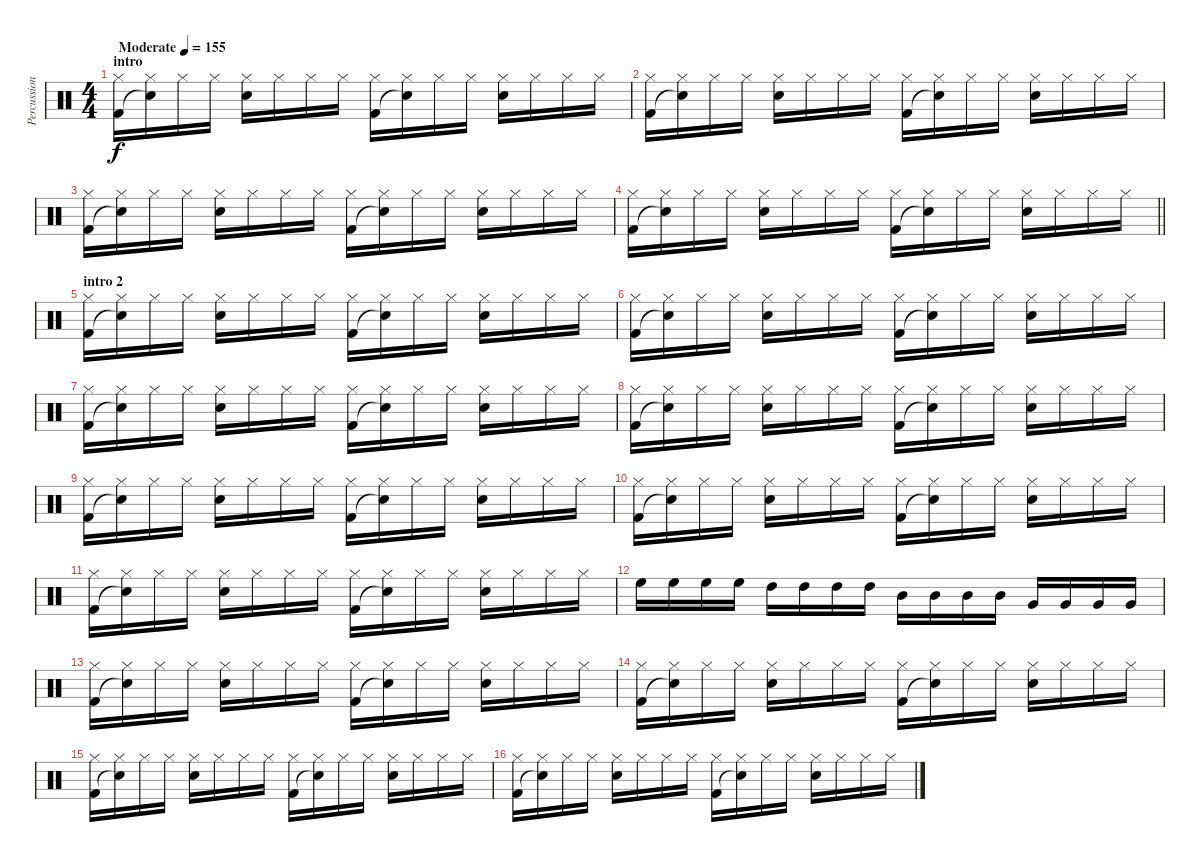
\track ("Percussion" "Percussion") {instrument percussion}
\staff {score}
\articulation defaults
\ts (4 4)
\section ("" "intro")
\tempo (155 "Moderate")
\clef neutral
\ks c
("Hi-Hat (closed)" "Kick (hit) 2").16{dy f} ("Hi-Hat (closed)" "Snare (hit)"{t}).16 "Hi-Hat (closed)".16 "Hi-Hat (closed)".16 ("Hi-Hat (closed)" "Snare (hit) 2").16 "Hi-Hat (closed)".16 "Hi-Hat (closed)".16 "Hi-Hat (closed)".16 ("Hi-Hat (closed)" "Kick (hit) 2").16 ("Hi-Hat (closed)" "Snare (hit)"{t}).16 "Hi-Hat (closed)".16 "Hi-Hat (closed)".16 ("Hi-Hat (closed)" "Snare (hit) 2").16 "Hi-Hat (closed)".16 "Hi-Hat (closed)".16 "Hi-Hat (closed)".16 |
("Hi-Hat (closed)" "Kick (hit) 2").16 ("Hi-Hat (closed)" "Snare (hit)"{t}).16 "Hi-Hat (closed)".16 "Hi-Hat (closed)".16 ("Hi-Hat (closed)" "Snare (hit) 2").16 "Hi-Hat (closed)".16 "Hi-Hat (closed)".16 "Hi-Hat (closed)".16 ("Hi-Hat (closed)" "Kick (hit) 2").16 ("Hi-Hat (closed)" "Snare (hit)"{t}).16 "Hi-Hat (closed)".16 "Hi-Hat (closed)".16 ("Hi-Hat (closed)" "Snare (hit) 2").16 "Hi-Hat (closed)".16 "Hi-Hat (closed)".16 "Hi-Hat (closed)".16 |
("Hi-Hat (closed)" "Kick (hit) 2").16 ("Hi-Hat (closed)" "Snare (hit)"{t}).16 "Hi-Hat (closed)".16 "Hi-Hat (closed)".16 ("Hi-Hat (closed)" "Snare (hit) 2").16 "Hi-Hat (closed)".16 "Hi-Hat (closed)".16 "Hi-Hat (closed)".16 ("Hi-Hat (closed)" "Kick (hit) 2").16 ("Hi-Hat (closed)" "Snare (hit)"{t}).16 "Hi-Hat (closed)".16 "Hi-Hat (closed)".16 ("Hi-Hat (closed)" "Snare (hit) 2").16 "Hi-Hat (closed)".16 "Hi-Hat (closed)".16 "Hi-Hat (closed)".16 |
\barLineRight lightlight
("Hi-Hat (closed)" "Kick (hit) 2").16 ("Hi-Hat (closed)" "Snare (hit)"{t}).16 "Hi-Hat (closed)".16 "Hi-Hat (closed)".16 ("Hi-Hat (closed)" "Snare (hit) 2").16 "Hi-Hat (closed)".16 "Hi-Hat (closed)".16 "Hi-Hat (closed)".16 ("Hi-Hat (closed)" "Kick (hit) 2").16 ("Hi-Hat (closed)" "Snare (hit)"{t}).16 "Hi-Hat (closed)".16 "Hi-Hat (closed)".16 ("Hi-Hat (closed)" "Snare (hit) 2").16 "Hi-Hat (closed)".16 "Hi-Hat (closed)".16 "Hi-Hat (closed)".16 |
\section ("" "intro 2")
("Hi-Hat (closed)" "Kick (hit) 2").16 ("Hi-Hat (closed)" "Snare (hit)"{t}).16 "Hi-Hat (closed)".16 "Hi-Hat (closed)".16 ("Hi-Hat (closed)" "Snare (hit) 2").16 "Hi-Hat (closed)".16 "Hi-Hat (closed)".16 "Hi-Hat (closed)".16 ("Hi-Hat (closed)" "Kick (hit) 2").16 ("Hi-Hat (closed)" "Snare (hit)"{t}).16 "Hi-Hat (closed)".16 "Hi-Hat (closed)".16 ("Hi-Hat (closed)" "Snare (hit) 2").16 "Hi-Hat (closed)".16 "Hi-Hat (closed)".16 "Hi-Hat (closed)".16 |
("Hi-Hat (closed)" "Kick (hit) 2").16 ("Hi-Hat (closed)" "Snare (hit)"{t}).16 "Hi-Hat (closed)".16 "Hi-Hat (closed)".16 ("Hi-Hat (closed)" "Snare (hit) 2").16 "Hi-Hat (closed)".16 "Hi-Hat (closed)".16 "Hi-Hat (closed)".16 ("Hi-Hat (closed)" "Kick (hit) 2").16 ("Hi-Hat (closed)" "Snare (hit)"{t}).16 "Hi-Hat (closed)".16 "Hi-Hat (closed)".16 ("Hi-Hat (closed)" "Snare (hit) 2").16 "Hi-Hat (closed)".16 "Hi-Hat (closed)".16 "Hi-Hat (closed)".16 |
("Hi-Hat (closed)" "Kick (hit) 2").16 ("Hi-Hat (closed)" "Snare (hit)"{t}).16 "Hi-Hat (closed)".16 "Hi-Hat (closed)".16 ("Hi-Hat (closed)" "Snare (hit) 2").16 "Hi-Hat (closed)".16 "Hi-Hat (closed)".16 "Hi-Hat (closed)".16 ("Hi-Hat (closed)" "Kick (hit) 2").16 ("Hi-Hat (closed)" "Snare (hit)"{t}).16 "Hi-Hat (closed)".16 "Hi-Hat (closed)".16 ("Hi-Hat (closed)" "Snare (hit) 2").16 "Hi-Hat (closed)".16 "Hi-Hat (closed)".16 "Hi-Hat (closed)".16 |
("Hi-Hat (closed)" "Kick (hit) 2").16 ("Hi-Hat (closed)" "Snare (hit)"{t}).16 "Hi-Hat (closed)".16 "Hi-Hat (closed)".16 ("Hi-Hat (closed)" "Snare (hit) 2").16 "Hi-Hat (closed)".16 "Hi-Hat (closed)".16 "Hi-Hat (closed)".16 ("Hi-Hat (closed)" "Kick (hit) 2").16 ("Hi-Hat (closed)" "Snare (hit)"{t}).16 "Hi-Hat (closed)".16 "Hi-Hat (closed)".16 ("Hi-Hat (closed)" "Snare (hit) 2").16 "Hi-Hat (closed)".16 "Hi-Hat (closed)".16 "Hi-Hat (closed)".16 |
("Hi-Hat (closed)" "Kick (hit) 2").16 ("Hi-Hat (closed)" "Snare (hit)"{t}).16 "Hi-Hat (closed)".16 "Hi-Hat (closed)".16 ("Hi-Hat (closed)" "Snare (hit) 2").16 "Hi-Hat (closed)".16 "Hi-Hat (closed)".16 "Hi-Hat (closed)".16 ("Hi-Hat (closed)" "Kick (hit) 2").16 ("Hi-Hat (closed)" "Snare (hit)"{t}).16 "Hi-Hat (closed)".16 "Hi-Hat (closed)".16 ("Hi-Hat (closed)" "Snare (hit) 2").16 "Hi-Hat (closed)".16 "Hi-Hat (closed)".16 "Hi-Hat (closed)".16 |
("Hi-Hat (closed)" "Kick (hit) 2").16 ("Hi-Hat (closed)" "Snare (hit)"{t}).16 "Hi-Hat (closed)".16 "Hi-Hat (closed)".16 ("Hi-Hat (closed)" "Snare (hit) 2").16 "Hi-Hat (closed)".16 "Hi-Hat (closed)".16 "Hi-Hat (closed)".16 ("Hi-Hat (closed)" "Kick (hit) 2").16 ("Hi-Hat (closed)" "Snare (hit)"{t}).16 "Hi-Hat (closed)".16 "Hi-Hat (closed)".16 ("Hi-Hat (closed)" "Snare (hit) 2").16 "Hi-Hat (closed)".16 "Hi-Hat (closed)".16 "Hi-Hat (closed)".16 |
("Hi-Hat (closed)" "Kick (hit) 2").16 ("Hi-Hat (closed)" "Snare (hit)"{t}).16 "Hi-Hat (closed)".16 "Hi-Hat (closed)".16 ("Hi-Hat (closed)" "Snare (hit) 2").16 "Hi-Hat (closed)".16 "Hi-Hat (closed)".16 "Hi-Hat (closed)".16 ("Hi-Hat (closed)" "Kick (hit) 2").16 ("Hi-Hat (closed)" "Snare (hit)"{t}).16 "Hi-Hat (closed)".16 "Hi-Hat (closed)".16 ("Hi-Hat (closed)" "Snare (hit) 2").16 "Hi-Hat (closed)".16 "Hi-Hat (closed)".16 "Hi-Hat (closed)".16 |
"High Floor Tom (hit)".16 "High Floor Tom (hit)".16 "High Floor Tom (hit)".16 "High Floor Tom (hit)".16 "High Tom (hit)".16 "High Tom (hit)".16 "High Tom (hit)".16 "High Tom (hit)".16 "Mid Tom (hit)".16 "Mid Tom (hit)".16 "Mid Tom (hit)".16 "Mid Tom (hit)".16 "Very Low Tom (hit)".16 "Very Low Tom (hit)".16 "Very Low Tom (hit)".16 "Very Low Tom (hit)".16 |
("Hi-Hat (closed)" "Kick (hit) 2").16 ("Hi-Hat (closed)" "Snare (hit)"{t}).16 "Hi-Hat (closed)".16 "Hi-Hat (closed)".16 ("Hi-Hat (closed)" "Snare (hit) 2").16 "Hi-Hat (closed)".16 "Hi-Hat (closed)".16 "Hi-Hat (closed)".16 ("Hi-Hat (closed)" "Kick (hit) 2").16 ("Hi-Hat (closed)" "Snare (hit)"{t}).16 "Hi-Hat (closed)".16 "Hi-Hat (closed)".16 ("Hi-Hat (closed)" "Snare (hit) 2").16 "Hi-Hat (closed)".16 "Hi-Hat (closed)".16 "Hi-Hat (closed)".16 |
("Hi-Hat (closed)" "Kick (hit) 2").16 ("Hi-Hat (closed)" "Snare (hit)"{t}).16 "Hi-Hat (closed)".16 "Hi-Hat (closed)".16 ("Hi-Hat (closed)" "Snare (hit) 2").16 "Hi-Hat (closed)".16 "Hi-Hat (closed)".16 "Hi-Hat (closed)".16 ("Hi-Hat (closed)" "Kick (hit) 2").16 ("Hi-Hat (closed)" "Snare (hit)"{t}).16 "Hi-Hat (closed)".16 "Hi-Hat (closed)".16 ("Hi-Hat (closed)" "Snare (hit) 2").16 "Hi-Hat (closed)".16 "Hi-Hat (closed)".16 "Hi-Hat (closed)".16 |
("Hi-Hat (closed)" "Kick (hit) 2").16 ("Hi-Hat (closed)" "Snare (hit)"{t}).16 "Hi-Hat (closed)".16 "Hi-Hat (closed)".16 ("Hi-Hat (closed)" "Snare (hit) 2").16 "Hi-Hat (closed)".16 "Hi-Hat (closed)".16 "Hi-Hat (closed)".16 ("Hi-Hat (closed)" "Kick (hit) 2").16 ("Hi-Hat (closed)" "Snare (hit)"{t}).16 "Hi-Hat (closed)".16 "Hi-Hat (closed)".16 ("Hi-Hat (closed)" "Snare (hit) 2").16 "Hi-Hat (closed)".16 "Hi-Hat (closed)".16 "Hi-Hat (closed)".16 |
("Hi-Hat (closed)" "Kick (hit) 2").16 ("Hi-Hat (closed)" "Snare (hit)"{t}).16 "Hi-Hat (closed)".16 "Hi-Hat (closed)".16 ("Hi-Hat (closed)" "Snare (hit) 2").16 "Hi-Hat (closed)".16 "Hi-Hat (closed)".16 "Hi-Hat (closed)".16 ("Hi-Hat (closed)" "Kick (hit) 2").16 ("Hi-Hat (closed)" "Snare (hit)"{t}).16 "Hi-Hat (closed)".16 "Hi-Hat (closed)".16 ("Hi-Hat (closed)" "Snare (hit) 2").16 "Hi-Hat (closed)".16 "Hi-Hat (closed)".16 "Hi-Hat (closed)".16
